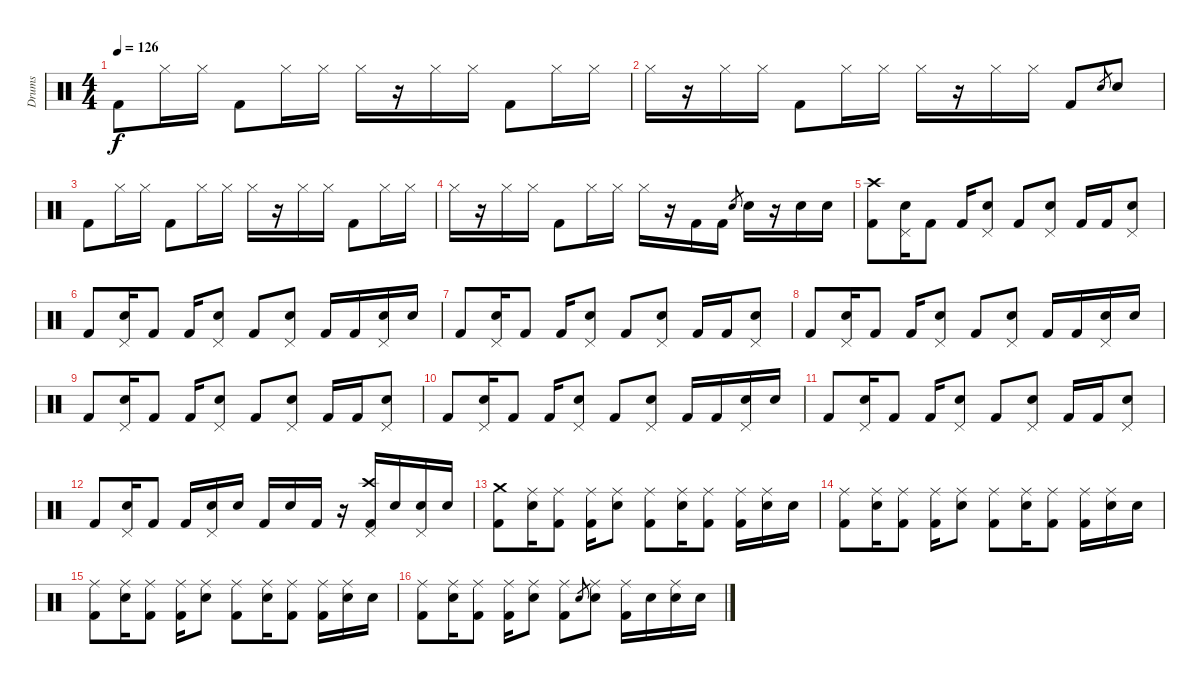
\track ("Drums" "Drums") {instrument percussion}
\staff {score}
\articulation defaults
\ts (4 4)
\tempo 126
\clef neutral
\ks c "Kick (hit) 2".8{dy f} "Hi-Hat (closed)".16 "Hi-Hat (closed)".16 "Kick (hit) 2".8 "Hi-Hat (closed)".16 "Hi-Hat (closed)".16 "Hi-Hat (closed)".16
r.16 "Hi-Hat (closed)".16 "Hi-Hat (closed)".16 "Kick (hit) 2".8 "Hi-Hat (closed)".16 "Hi-Hat (closed)".16 |
"Hi-Hat (closed)".16 r.16 "Hi-Hat (closed)".16 "Hi-Hat (closed)".16 "Kick (hit) 2".8 "Hi-Hat (closed)".16 "Hi-Hat (closed)".16 "Hi-Hat (closed)".16 r.16 "Hi-Hat (closed)".16 "Hi-Hat (closed)".16 "Kick (hit) 2".8 "Electric Snare (hit)".8{gr} "Electric Snare (hit)".8 |
"Kick (hit) 2".8 "Hi-Hat (closed)".16 "Hi-Hat (closed)".16 "Kick (hit) 2".8 "Hi-Hat (closed)".16 "Hi-Hat (closed)".16 "Hi-Hat (closed)".16 r.16 "Hi-Hat (closed)".16 "Hi-Hat (closed)".16 "Kick (hit) 2".8 "Hi-Hat (closed)".16 "Hi-Hat (closed)".16 |
"Hi-Hat (closed)".16 r.16 "Hi-Hat (closed)".16 "Hi-Hat (closed)".16 "Kick (hit) 2".8 "Hi-Hat (closed)".16 "Hi-Hat (closed)".16 "Hi-Hat (closed)".16 r.16 "Kick (hit) 2".16 "Kick (hit) 2".16 "Electric Snare (hit)".8{gr} "Electric Snare (hit)".16 r.16 "Electric Snare (hit)".16 "Electric Snare (hit)".16 |
("Crash high (hit)" "Kick (hit) 2").8 ("Pedal Hi-Hat (hit)" "Electric Snare (hit)").16 "Kick (hit) 2".8 "Kick (hit) 2".16 ("Pedal Hi-Hat (hit)" "Electric Snare (hit)").8 "Kick (hit) 2".8 ("Pedal Hi-Hat (hit)" "Electric Snare (hit)").8 "Kick (hit) 2".16 "Kick (hit) 2".16 ("Pedal Hi-Hat (hit)" "Electric Snare (hit)").8 |
"Kick (hit) 2".8 ("Pedal Hi-Hat (hit)" "Electric Snare (hit)").16 "Kick (hit) 2".8 "Kick (hit) 2".16 ("Pedal Hi-Hat (hit)" "Electric Snare (hit)").8 "Kick (hit) 2".8 ("Pedal Hi-Hat (hit)" "Electric Snare (hit)").8 "Kick (hit) 2".16 "Kick (hit) 2".16 ("Pedal Hi-Hat (hit)" "Electric Snare (hit)").16 "Electric Snare (hit)".16 |
"Kick (hit) 2".8 ("Pedal Hi-Hat (hit)" "Electric Snare (hit)").16 "Kick (hit) 2".8 "Kick (hit) 2".16 ("Pedal Hi-Hat (hit)" "Electric Snare (hit)").8 "Kick (hit) 2".8 ("Pedal Hi-Hat (hit)" "Electric Snare (hit)").8 "Kick (hit) 2".16 "Kick (hit) 2".16 ("Pedal Hi-Hat (hit)" "Electric Snare (hit)").8 |
"Kick (hit) 2".8 ("Pedal Hi-Hat (hit)" "Electric Snare (hit)").16 "Kick (hit) 2".8 "Kick (hit) 2".16 ("Pedal Hi-Hat (hit)" "Electric Snare (hit)").8 "Kick (hit) 2".8 ("Pedal Hi-Hat (hit)" "Electric Snare (hit)").8 "Kick (hit) 2".16 "Kick (hit) 2".16 ("Pedal Hi-Hat (hit)" "Electric Snare (hit)").16 "Electric Snare (hit)".16 |
"Kick (hit) 2".8 ("Pedal Hi-Hat (hit)" "Electric Snare (hit)").16 "Kick (hit) 2".8 "Kick (hit) 2".16 ("Pedal Hi-Hat (hit)" "Electric Snare (hit)").8 "Kick (hit) 2".8 ("Pedal Hi-Hat (hit)" "Electric Snare (hit)").8 "Kick (hit) 2".16 "Kick (hit) 2".16 ("Pedal Hi-Hat (hit)" "Electric Snare (hit)").8 |
"Kick (hit) 2".8 ("Pedal Hi-Hat (hit)" "Electric Snare (hit)").16 "Kick (hit) 2".8 "Kick (hit) 2".16 ("Pedal Hi-Hat (hit)" "Electric Snare (hit)").8 "Kick (hit) 2".8 ("Pedal Hi-Hat (hit)" "Electric Snare (hit)").8 "Kick (hit) 2".16 "Kick (hit) 2".16 ("Pedal Hi-Hat (hit)" "Electric Snare (hit)").16 "Electric Snare (hit)".16 |
"Kick (hit) 2".8 ("Pedal Hi-Hat (hit)" "Electric Snare (hit)").16 "Kick (hit) 2".8 "Kick (hit) 2".16 ("Pedal Hi-Hat (hit)" "Electric Snare (hit)").8 "Kick (hit) 2".8 ("Pedal Hi-Hat (hit)" "Electric Snare (hit)").8 "Kick (hit) 2".16 "Kick (hit) 2".16 ("Pedal Hi-Hat (hit)" "Electric Snare (hit)").8 |
"Kick (hit) 2".8 ("Pedal Hi-Hat (hit)" "Electric Snare (hit)").16 "Kick (hit) 2".8 "Kick (hit) 2".16 ("Pedal Hi-Hat (hit)" "Electric Snare (hit)").16 "Electric Snare (hit)".16 "Kick (hit) 2".16 "Electric Snare (hit)".16 "Kick (hit) 2".16 r.16 ("Crash high (hit)" "Pedal Hi-Hat (hit)" "Kick (hit) 2").16 "Electric Snare (hit)".16 ("Pedal Hi-Hat (hit)" "Electric Snare (hit)").16 "Electric Snare (hit)".16 |
("Crash medium (hit)" "Kick (hit) 2").8 ("Ride (middle)" "Electric Snare (hit)").16 ("Ride (middle)" "Kick (hit) 2").8 ("Ride (middle)" "Kick (hit) 2").16 ("Ride (middle)" "Electric Snare (hit)").8 ("Ride (middle)" "Kick (hit) 2").8 ("Ride (middle)" "Electric Snare (hit)").16 ("Ride (middle)" "Kick (hit) 2").8 ("Ride (middle)" "Kick (hit) 2").16 ("Ride (middle)" "Electric Snare (hit)").16 "Electric Snare (hit)".16 |
("Ride (middle)" "Kick (hit) 2").8 ("Ride (middle)" "Electric Snare (hit)").16 ("Ride (middle)" "Kick (hit) 2").8 ("Ride (middle)" "Kick (hit) 2").16 ("Ride (middle)" "Electric Snare (hit)").8 ("Ride (middle)" "Kick (hit) 2").8 ("Ride (middle)" "Electric Snare (hit)").16 ("Ride (middle)" "Kick (hit) 2").8 ("Ride (middle)" "Kick (hit) 2").16 ("Ride (middle)" "Electric Snare (hit)").16 "Electric Snare (hit)".16 |
("Ride (middle)" "Kick (hit) 2").8 ("Ride (middle)" "Electric Snare (hit)").16 ("Ride (middle)" "Kick (hit) 2").8 ("Ride (middle)" "Kick (hit) 2").16 ("Ride (middle)" "Electric Snare (hit)").8 ("Ride (middle)" "Kick (hit) 2").8 ("Ride (middle)" "Electric Snare (hit)").16 ("Ride (middle)" "Kick (hit) 2").8 ("Ride (middle)" "Kick (hit) 2").16 ("Ride (middle)" "Electric Snare (hit)").16 "Electric Snare (hit)".16 |
("Ride (middle)" "Kick (hit) 2").8 ("Ride (middle)" "Electric Snare (hit)").16 ("Ride (middle)" "Kick (hit) 2").8 ("Ride (middle)" "Kick (hit) 2").16 ("Ride (middle)" "Electric Snare (hit)").8 ("Ride (middle)" "Kick (hit) 2").8 "Electric Snare (hit)".8{gr} ("Ride (middle)" "Electric Snare (hit)").8 ("Ride (middle)" "Kick (hit) 2").16 "Electric Snare (hit)".16 ("Ride (middle)" "Electric Snare (hit)").16 "Electric Snare (hit)".16
